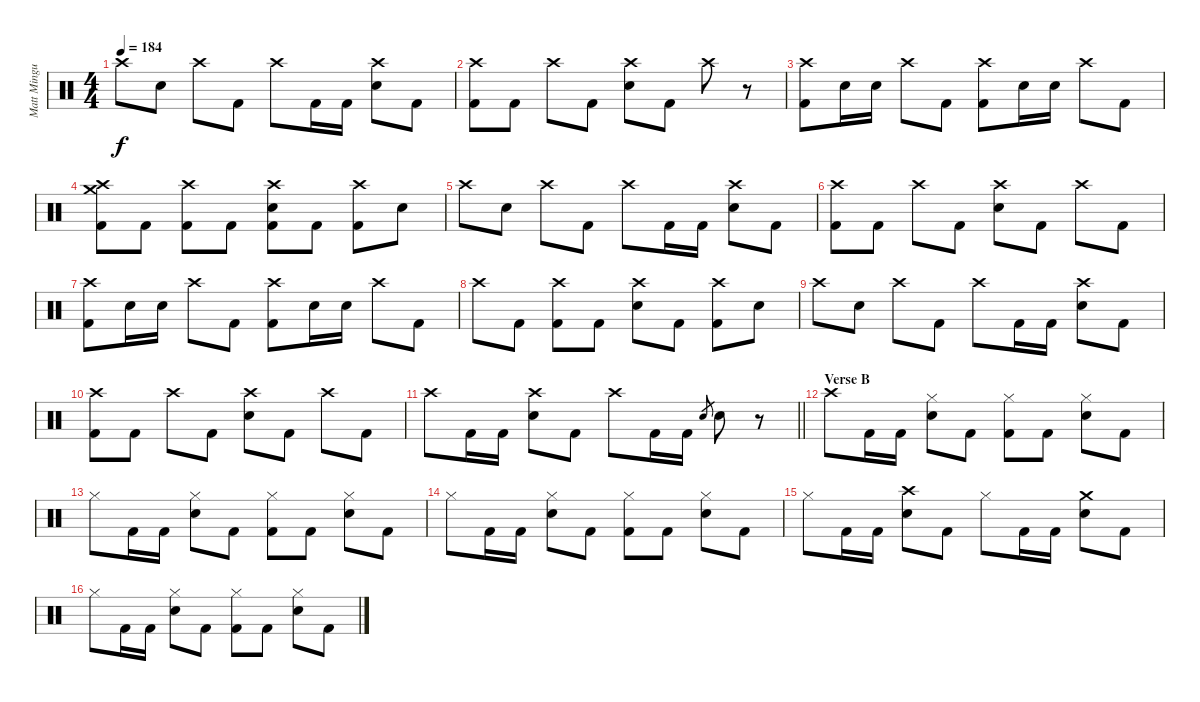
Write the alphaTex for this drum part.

\track ("Matt Mingus (Drums)" "Matt Mingu") {instrument percussion}
\staff {score}
\articulation defaults
\ts (4 4)
\tempo 184
\clef neutral
\ks c "Crash high (hit)".8{dy f} "Electric Snare (hit)".8 "Crash high (hit)".8 "Kick (hit) 2".8 "Crash high (hit)".8 "Kick (hit) 2".16 "Kick (hit) 2".16
("Crash high (hit)" "Electric Snare (hit)").8 "Kick (hit) 2".8 |
("Crash high (hit)" "Kick (hit) 2").8 "Kick (hit) 2".8 "Crash high (hit)".8 "Kick (hit) 2".8 ("Crash high (hit)" "Electric Snare (hit)").8 "Kick (hit) 2".8 "Crash high (hit)".8 r.8 |
("Crash high (hit)" "Kick (hit) 2").8 "Electric Snare (hit)".16 "Electric Snare (hit)".16 "Crash high (hit)".8 "Kick (hit) 2".8 ("Crash high (hit)" "Kick (hit) 2").8 "Electric Snare (hit)".16 "Electric Snare (hit)".16 "Crash high (hit)".8 "Kick (hit) 2".8 |
("Crash medium (hit)" "Crash high (hit)" "Kick (hit) 2").8 "Kick (hit) 2".8 ("Crash high (hit)" "Kick (hit) 2").8 "Kick (hit) 2".8 ("Crash high (hit)" "Electric Snare (hit)" "Kick (hit) 2").8 "Kick (hit) 2".8 ("Crash high (hit)" "Kick (hit) 2").8 "Electric Snare (hit)".8 |
"Crash high (hit)".8 "Electric Snare (hit)".8 "Crash high (hit)".8 "Kick (hit) 2".8 "Crash high (hit)".8 "Kick (hit) 2".16 "Kick (hit) 2".16 ("Crash high (hit)" "Electric Snare (hit)").8 "Kick (hit) 2".8 |
("Crash high (hit)" "Kick (hit) 2").8 "Kick (hit) 2".8 "Crash high (hit)".8 "Kick (hit) 2".8 ("Crash high (hit)" "Electric Snare (hit)").8 "Kick (hit) 2".8 "Crash high (hit)".8 "Kick (hit) 2".8 |
("Crash high (hit)" "Kick (hit) 2").8 "Electric Snare (hit)".16 "Electric Snare (hit)".16 "Crash high (hit)".8 "Kick (hit) 2".8 ("Crash high (hit)" "Kick (hit) 2").8 "Electric Snare (hit)".16 "Electric Snare (hit)".16 "Crash high (hit)".8 "Kick (hit) 2".8 |
"Crash high (hit)".8 "Kick (hit) 2".8 ("Crash high (hit)" "Kick (hit) 2").8 "Kick (hit) 2".8 ("Crash high (hit)" "Electric Snare (hit)").8 "Kick (hit) 2".8 ("Crash high (hit)" "Kick (hit) 2").8 "Electric Snare (hit)".8 |
"Crash high (hit)".8 "Electric Snare (hit)".8 "Crash high (hit)".8 "Kick (hit) 2".8 "Crash high (hit)".8 "Kick (hit) 2".16 "Kick (hit) 2".16 ("Crash high (hit)" "Electric Snare (hit)").8 "Kick (hit) 2".8 |
("Crash high (hit)" "Kick (hit) 2").8 "Kick (hit) 2".8 "Crash high (hit)".8 "Kick (hit) 2".8 ("Crash high (hit)" "Electric Snare (hit)").8 "Kick (hit) 2".8 "Crash high (hit)".8 "Kick (hit) 2".8 |
\barLineRight lightlight "Crash high (hit)".8 "Kick (hit) 2".16 "Kick (hit) 2".16
("Crash high (hit)" "Electric Snare (hit)").8 "Kick (hit) 2".8 "Crash high (hit)".8 "Kick (hit) 2".16 "Kick (hit) 2".16 "Electric Snare (hit)".8{gr} "Electric Snare (hit)".8 r.8 |
\section ("" "Verse B")
"Crash high (hit)".8 "Kick (hit) 2".16 "Kick (hit) 2".16 ("Hi-Hat (closed)" "Electric Snare (hit)").8 "Kick (hit) 2".8 ("Hi-Hat (closed)" "Kick (hit) 2").8 "Kick (hit) 2".8 ("Hi-Hat (closed)" "Electric Snare (hit)").8 "Kick (hit) 2".8 |
"Hi-Hat (closed)".8 "Kick (hit) 2".16 "Kick (hit) 2".16 ("Hi-Hat (closed)" "Electric Snare (hit)").8 "Kick (hit) 2".8 ("Hi-Hat (closed)" "Kick (hit) 2").8 "Kick (hit) 2".8 ("Hi-Hat (closed)" "Electric Snare (hit)").8 "Kick (hit) 2".8 |
"Hi-Hat (closed)".8 "Kick (hit) 2".16 "Kick (hit) 2".16 ("Hi-Hat (closed)" "Electric Snare (hit)").8 "Kick (hit) 2".8 ("Hi-Hat (closed)" "Kick (hit) 2").8 "Kick (hit) 2".8 ("Hi-Hat (closed)" "Electric Snare (hit)").8 "Kick (hit) 2".8 |
"Hi-Hat (closed)".8 "Kick (hit) 2".16 "Kick (hit) 2".16 ("Crash high (hit)" "Electric Snare (hit)").8 "Kick (hit) 2".8 "Hi-Hat (closed)".8 "Kick (hit) 2".16 "Kick (hit) 2".16 ("Crash medium (hit)" "Electric Snare (hit)").8 "Kick (hit) 2".8 |
"Hi-Hat (closed)".8 "Kick (hit) 2".16 "Kick (hit) 2".16 ("Hi-Hat (closed)" "Electric Snare (hit)").8 "Kick (hit) 2".8 ("Hi-Hat (closed)" "Kick (hit) 2").8 "Kick (hit) 2".8 ("Hi-Hat (closed)" "Electric Snare (hit)").8 "Kick (hit) 2".8
